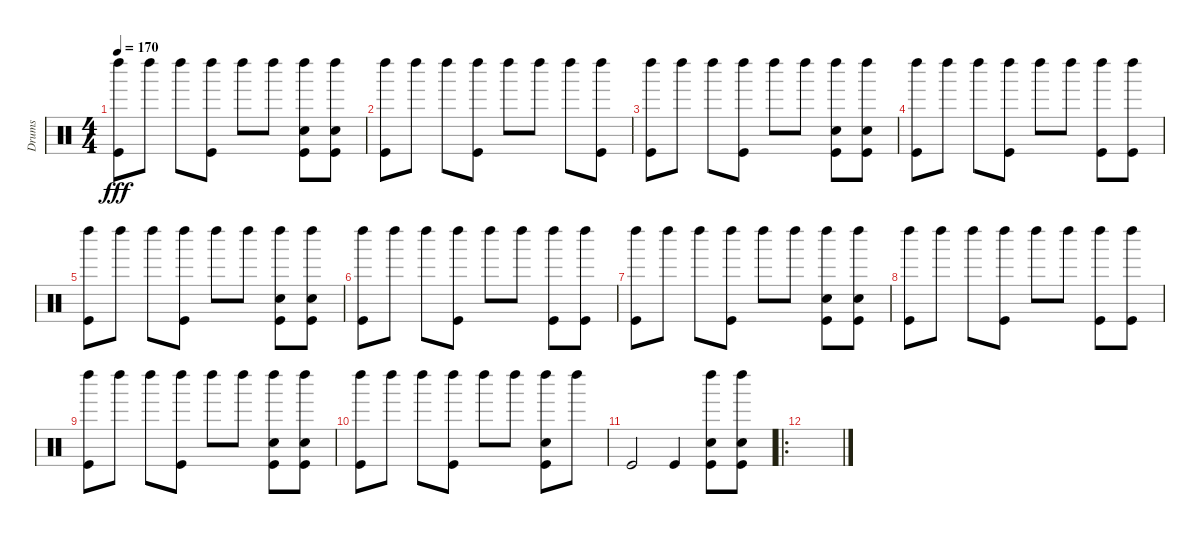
\track ("Drums" "Drums") {instrument percussion}
\staff {score}
\articulation defaults
\ts (4 4)
\tempo 170
\clef neutral
\ks c
("Left Maraca (hit)" "Kick (hit)").8{dy fff} "Left Maraca (hit)".8 "Left Maraca (hit)".8 ("Left Maraca (hit)" "Kick (hit)").8 "Left Maraca (hit)".8 "Left Maraca (hit)".8 ("Left Maraca (hit)" "Hand Clap (hit)" "Kick (hit)").8 ("Left Maraca (hit)" "Hand Clap (hit)" "Kick (hit)").8 |
("Left Maraca (hit)" "Kick (hit)").8 "Left Maraca (hit)".8 "Left Maraca (hit)".8 ("Left Maraca (hit)" "Kick (hit)").8 "Left Maraca (hit)".8 "Left Maraca (hit)".8 "Left Maraca (hit)".8 ("Left Maraca (hit)" "Kick (hit)").8 |
("Left Maraca (hit)" "Kick (hit)").8 "Left Maraca (hit)".8 "Left Maraca (hit)".8 ("Left Maraca (hit)" "Kick (hit)").8 "Left Maraca (hit)".8 "Left Maraca (hit)".8 ("Left Maraca (hit)" "Hand Clap (hit)" "Kick (hit)").8 ("Left Maraca (hit)" "Hand Clap (hit)" "Kick (hit)").8 |
("Left Maraca (hit)" "Kick (hit)").8 "Left Maraca (hit)".8 "Left Maraca (hit)".8 ("Left Maraca (hit)" "Kick (hit)").8 "Left Maraca (hit)".8 "Left Maraca (hit)".8 ("Left Maraca (hit)" "Kick (hit)").8 ("Left Maraca (hit)" "Kick (hit)").8 |
("Left Maraca (hit)" "Kick (hit)").8 "Left Maraca (hit)".8 "Left Maraca (hit)".8 ("Left Maraca (hit)" "Kick (hit)").8 "Left Maraca (hit)".8 "Left Maraca (hit)".8 ("Left Maraca (hit)" "Hand Clap (hit)" "Kick (hit)").8 ("Left Maraca (hit)" "Hand Clap (hit)" "Kick (hit)").8 |
("Left Maraca (hit)" "Kick (hit)").8 "Left Maraca (hit)".8 "Left Maraca (hit)".8 ("Left Maraca (hit)" "Kick (hit)").8 "Left Maraca (hit)".8 "Left Maraca (hit)".8 ("Left Maraca (hit)" "Kick (hit)").8 ("Left Maraca (hit)" "Kick (hit)").8 |
("Left Maraca (hit)" "Kick (hit)").8 "Left Maraca (hit)".8 "Left Maraca (hit)".8 ("Left Maraca (hit)" "Kick (hit)").8 "Left Maraca (hit)".8 "Left Maraca (hit)".8 ("Left Maraca (hit)" "Hand Clap (hit)" "Kick (hit)").8 ("Left Maraca (hit)" "Hand Clap (hit)" "Kick (hit)").8 |
("Left Maraca (hit)" "Kick (hit)").8 "Left Maraca (hit)".8 "Left Maraca (hit)".8 ("Left Maraca (hit)" "Kick (hit)").8 "Left Maraca (hit)".8 "Left Maraca (hit)".8 ("Left Maraca (hit)" "Kick (hit)").8 ("Left Maraca (hit)" "Kick (hit)").8 |
("Left Maraca (hit)" "Kick (hit)").8 "Left Maraca (hit)".8 "Left Maraca (hit)".8 ("Left Maraca (hit)" "Kick (hit)").8 "Left Maraca (hit)".8 "Left Maraca (hit)".8 ("Left Maraca (hit)" "Hand Clap (hit)" "Kick (hit)").8 ("Left Maraca (hit)" "Hand Clap (hit)" "Kick (hit)").8 |
("Left Maraca (hit)" "Kick (hit)").8 "Left Maraca (hit)".8 "Left Maraca (hit)".8 ("Left Maraca (hit)" "Kick (hit)").8 "Left Maraca (hit)".8 "Left Maraca (hit)".8 ("Left Maraca (hit)" "Hand Clap (hit)" "Kick (hit)").8 "Left Maraca (hit)".8 |
"Kick (hit)".2 "Kick (hit)".4 ("Left Maraca (hit)" "Hand Clap (hit)" "Kick (hit)").8 ("Left Maraca (hit)" "Hand Clap (hit)" "Kick (hit)").8 |
\ro
